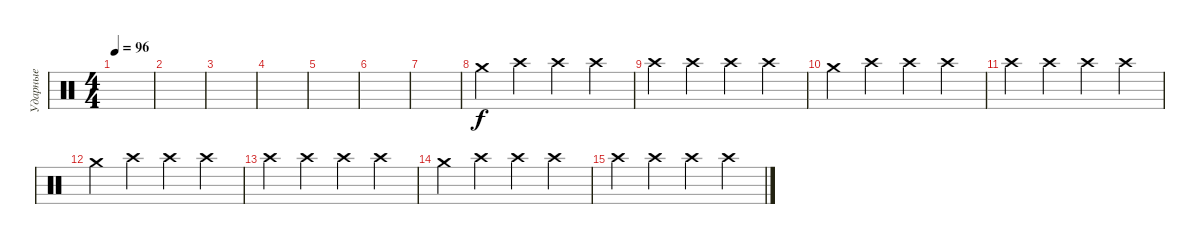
\track ("Ударные" "Ударные") {instrument percussion}
\staff {score}
\articulation defaults
\ts (4 4)
\tempo 96
\clef neutral
\ks c
|
|
|
|
|
|
|
"Crash medium (hit)".4 "Crash high (hit)".4 "Crash high (hit)".4 "Crash high (hit)".4 |
"Crash high (hit)".4 "Crash high (hit)".4 "Crash high (hit)".4 "Crash high (hit)".4 |
"Crash medium (hit)".4 "Crash high (hit)".4 "Crash high (hit)".4 "Crash high (hit)".4 |
"Crash high (hit)".4 "Crash high (hit)".4 "Crash high (hit)".4 "Crash high (hit)".4 |
"Crash medium (hit)".4 "Crash high (hit)".4 "Crash high (hit)".4 "Crash high (hit)".4 |
"Crash high (hit)".4 "Crash high (hit)".4 "Crash high (hit)".4 "Crash high (hit)".4 |
"Crash medium (hit)".4 "Crash high (hit)".4 "Crash high (hit)".4 "Crash high (hit)".4 |
"Crash high (hit)".4 "Crash high (hit)".4 "Crash high (hit)".4 "Crash high (hit)".4
